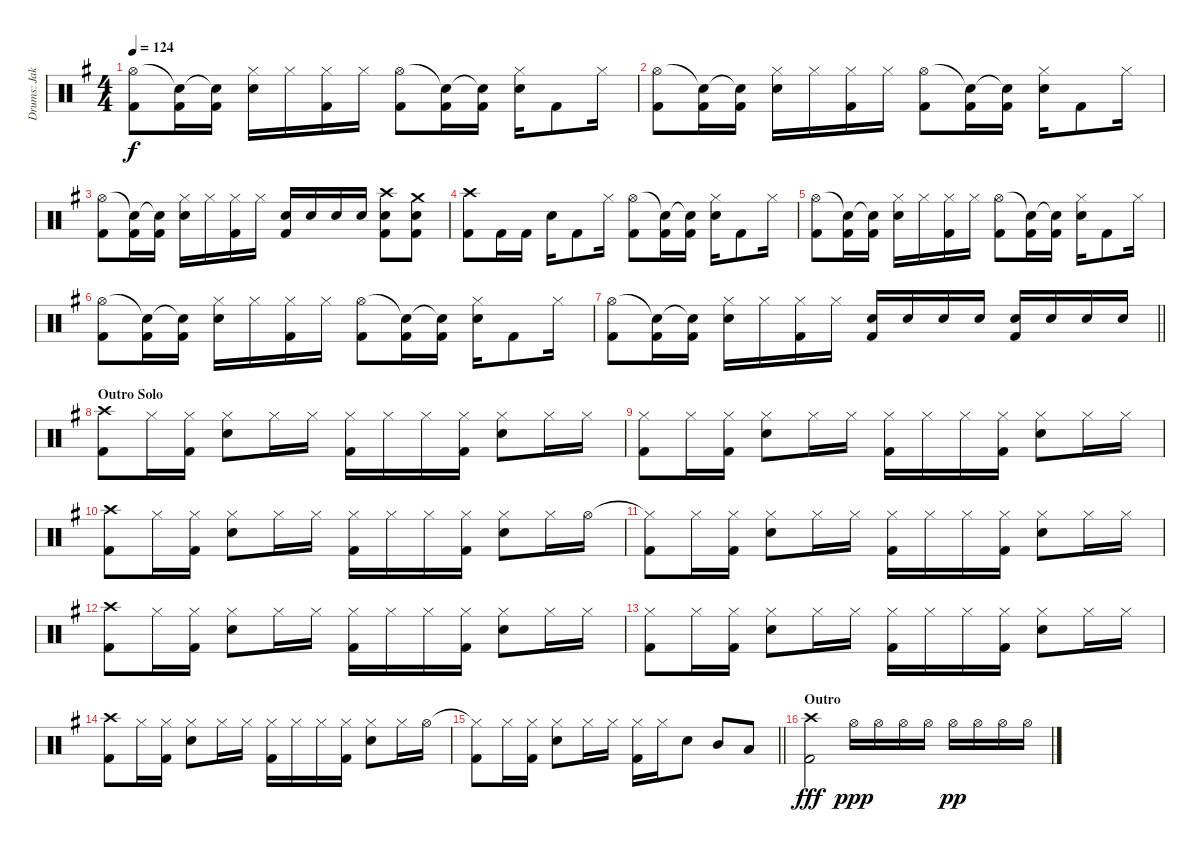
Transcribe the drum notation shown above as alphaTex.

\track ("Drums: Jakson" "Drums: Jak") {instrument percussion}
\staff {score}
\articulation defaults
\ts (4 4)
\tempo 124
\clef neutral
\ks g
("Hi-Hat (open)" "Kick (hit) 2").8{dy f} ("Snare (hit)"{t} "Kick (hit) 2").16 ("Snare (hit)"{t} "Kick (hit) 2").16 ("Hi-Hat (closed)" "Electric Snare (hit)").16 "Hi-Hat (closed)".16 ("Hi-Hat (closed)" "Kick (hit) 2").16 "Hi-Hat (closed)".16 ("Hi-Hat (open)" "Kick (hit) 2").8 ("Snare (hit)"{t} "Kick (hit) 2").16 ("Snare (hit)"{t} "Kick (hit) 2").16 ("Hi-Hat (closed)" "Electric Snare (hit)").16 "Kick (hit) 2".8 "Hi-Hat (closed)".16 |
("Hi-Hat (open)" "Kick (hit) 2").8 ("Snare (hit)"{t} "Kick (hit) 2").16 ("Snare (hit)"{t} "Kick (hit) 2").16 ("Hi-Hat (closed)" "Electric Snare (hit)").16 "Hi-Hat (closed)".16 ("Hi-Hat (closed)" "Kick (hit) 2").16 "Hi-Hat (closed)".16 ("Hi-Hat (open)" "Kick (hit) 2").8 ("Snare (hit)"{t} "Kick (hit) 2").16 ("Snare (hit)"{t} "Kick (hit) 2").16 ("Hi-Hat (closed)" "Electric Snare (hit)").16 "Kick (hit) 2".8 "Hi-Hat (closed)".16 |
("Hi-Hat (open)" "Kick (hit) 2").8 ("Snare (hit)"{t} "Kick (hit) 2").16 ("Snare (hit)"{t} "Kick (hit) 2").16 ("Hi-Hat (closed)" "Electric Snare (hit)").16 "Hi-Hat (closed)".16 ("Hi-Hat (closed)" "Kick (hit) 2").16 "Hi-Hat (closed)".16 ("Electric Snare (hit)" "Kick (hit) 2").16 "Electric Snare (hit)".16 "Electric Snare (hit)".16 "Electric Snare (hit)".16 ("Crash high (hit)" "Snare (hit) 2" "Kick (hit) 2").8 ("Crash medium (hit)" "Electric Snare (hit)" "Kick (hit) 2").8 |
("Crash high (hit)" "Kick (hit) 2").8 "Kick (hit) 2".16 "Kick (hit) 2".16 "Electric Snare (hit)".16 "Kick (hit) 2".8 "Hi-Hat (closed)".16 ("Hi-Hat (open)" "Kick (hit) 2").8 ("Snare (hit)"{t} "Kick (hit) 2").16 ("Snare (hit)"{t} "Kick (hit) 2").16 ("Hi-Hat (closed)" "Electric Snare (hit)").16 "Kick (hit) 2".8 "Hi-Hat (closed)".16 |
("Hi-Hat (open)" "Kick (hit) 2").8 ("Snare (hit)"{t} "Kick (hit) 2").16 ("Snare (hit)"{t} "Kick (hit) 2").16 ("Hi-Hat (closed)" "Electric Snare (hit)").16 "Hi-Hat (closed)".16 ("Hi-Hat (closed)" "Kick (hit) 2").16 "Hi-Hat (closed)".16 ("Hi-Hat (open)" "Kick (hit) 2").8 ("Snare (hit)"{t} "Kick (hit) 2").16 ("Snare (hit)"{t} "Kick (hit) 2").16 ("Hi-Hat (closed)" "Electric Snare (hit)").16 "Kick (hit) 2".8 "Hi-Hat (closed)".16 |
("Hi-Hat (open)" "Kick (hit) 2").8 ("Snare (hit)"{t} "Kick (hit) 2").16 ("Snare (hit)"{t} "Kick (hit) 2").16 ("Hi-Hat (closed)" "Electric Snare (hit)").16 "Hi-Hat (closed)".16 ("Hi-Hat (closed)" "Kick (hit) 2").16 "Hi-Hat (closed)".16 ("Hi-Hat (open)" "Kick (hit) 2").8 ("Snare (hit)"{t} "Kick (hit) 2").16 ("Snare (hit)"{t} "Kick (hit) 2").16 ("Hi-Hat (closed)" "Electric Snare (hit)").16 "Kick (hit) 2".8 "Hi-Hat (closed)".16 |
\barLineRight lightlight
("Hi-Hat (open)" "Kick (hit) 2").8 ("Snare (hit)"{t} "Kick (hit) 2").16 ("Snare (hit)"{t} "Kick (hit) 2").16 ("Hi-Hat (closed)" "Electric Snare (hit)").16 "Hi-Hat (closed)".16 ("Hi-Hat (closed)" "Kick (hit) 2").16 "Hi-Hat (closed)".16 ("Electric Snare (hit)" "Kick (hit) 2").16 "Electric Snare (hit)".16 "Electric Snare (hit)".16 "Electric Snare (hit)".16 ("Snare (hit) 2" "Kick (hit) 2").16 "Electric Snare (hit)".16 "Electric Snare (hit)".16 "Electric Snare (hit)".16 |
\section ("" "Outro Solo")
("Crash high (hit)" "Kick (hit) 2").8 "Hi-Hat (closed)".16 ("Hi-Hat (closed)" "Kick (hit) 2").16 ("Hi-Hat (closed)" "Electric Snare (hit)").8 "Hi-Hat (closed)".16 "Hi-Hat (closed)".16 ("Hi-Hat (closed)" "Kick (hit) 2").16 "Hi-Hat (closed)".16 "Hi-Hat (closed)".16 ("Hi-Hat (closed)" "Kick (hit) 2").16 ("Hi-Hat (closed)" "Electric Snare (hit)").8 "Hi-Hat (closed)".16 "Hi-Hat (closed)".16 |
("Hi-Hat (closed)" "Kick (hit) 2").8 "Hi-Hat (closed)".16 ("Hi-Hat (closed)" "Kick (hit) 2").16 ("Hi-Hat (closed)" "Electric Snare (hit)").8 "Hi-Hat (closed)".16 "Hi-Hat (closed)".16 ("Hi-Hat (closed)" "Kick (hit) 2").16 "Hi-Hat (closed)".16 "Hi-Hat (closed)".16 ("Hi-Hat (closed)" "Kick (hit) 2").16 ("Hi-Hat (closed)" "Electric Snare (hit)").8 "Hi-Hat (closed)".16 "Hi-Hat (closed)".16 |
("Crash high (hit)" "Kick (hit) 2").8 "Hi-Hat (closed)".16 ("Hi-Hat (closed)" "Kick (hit) 2").16 ("Hi-Hat (closed)" "Electric Snare (hit)").8 "Hi-Hat (closed)".16 "Hi-Hat (closed)".16 ("Hi-Hat (closed)" "Kick (hit) 2").16 "Hi-Hat (closed)".16 "Hi-Hat (closed)".16 ("Hi-Hat (closed)" "Kick (hit) 2").16 ("Hi-Hat (closed)" "Electric Snare (hit)").8 "Hi-Hat (closed)".16 "Hi-Hat (open)".16 |
("Hi-Hat (closed)"{t} "Kick (hit) 2").8 "Hi-Hat (closed)".16 ("Hi-Hat (closed)" "Kick (hit) 2").16 ("Hi-Hat (closed)" "Electric Snare (hit)").8 "Hi-Hat (closed)".16 "Hi-Hat (closed)".16 ("Hi-Hat (closed)" "Kick (hit) 2").16 "Hi-Hat (closed)".16 "Hi-Hat (closed)".16 ("Hi-Hat (closed)" "Kick (hit) 2").16 ("Hi-Hat (closed)" "Electric Snare (hit)").8 "Hi-Hat (closed)".16 "Hi-Hat (closed)".16 |
("Crash high (hit)" "Kick (hit) 2").8 "Hi-Hat (closed)".16 ("Hi-Hat (closed)" "Kick (hit) 2").16 ("Hi-Hat (closed)" "Electric Snare (hit)").8 "Hi-Hat (closed)".16 "Hi-Hat (closed)".16 ("Hi-Hat (closed)" "Kick (hit) 2").16 "Hi-Hat (closed)".16 "Hi-Hat (closed)".16 ("Hi-Hat (closed)" "Kick (hit) 2").16 ("Hi-Hat (closed)" "Electric Snare (hit)").8 "Hi-Hat (closed)".16 "Hi-Hat (closed)".16 |
("Hi-Hat (closed)" "Kick (hit) 2").8 "Hi-Hat (closed)".16 ("Hi-Hat (closed)" "Kick (hit) 2").16 ("Hi-Hat (closed)" "Electric Snare (hit)").8 "Hi-Hat (closed)".16 "Hi-Hat (closed)".16 ("Hi-Hat (closed)" "Kick (hit) 2").16 "Hi-Hat (closed)".16 "Hi-Hat (closed)".16 ("Hi-Hat (closed)" "Kick (hit) 2").16 ("Hi-Hat (closed)" "Electric Snare (hit)").8 "Hi-Hat (closed)".16 "Hi-Hat (closed)".16 |
("Crash high (hit)" "Kick (hit) 2").8 "Hi-Hat (closed)".16 ("Hi-Hat (closed)" "Kick (hit) 2").16 ("Hi-Hat (closed)" "Electric Snare (hit)").8 "Hi-Hat (closed)".16 "Hi-Hat (closed)".16 ("Hi-Hat (closed)" "Kick (hit) 2").16 "Hi-Hat (closed)".16 "Hi-Hat (closed)".16 ("Hi-Hat (closed)" "Kick (hit) 2").16 ("Hi-Hat (closed)" "Electric Snare (hit)").8 "Hi-Hat (closed)".16 "Hi-Hat (open)".16 |
\barLineRight lightlight
("Hi-Hat (closed)"{t} "Kick (hit) 2").8 "Hi-Hat (closed)".16 ("Hi-Hat (closed)" "Kick (hit) 2").16 ("Hi-Hat (closed)" "Electric Snare (hit)").8 "Hi-Hat (closed)".16 "Hi-Hat (closed)".16 ("Hi-Hat (closed)" "Kick (hit) 2").16 "Hi-Hat (closed)".16 "Electric Snare (hit)".8 "Mid Tom (hit)".8 "Low Tom (hit)".8 |
\section ("" "Outro")
("Crash high (hit)" "Kick (hit) 2").2{dy fff} "Hi-Hat (open)".16{dy ppp} "Hi-Hat (open)".16 "Hi-Hat (open)".16 "Hi-Hat (open)".16 "Hi-Hat (open)".16{dy pp} "Hi-Hat (open)".16 "Hi-Hat (open)".16 "Hi-Hat (open)".16
